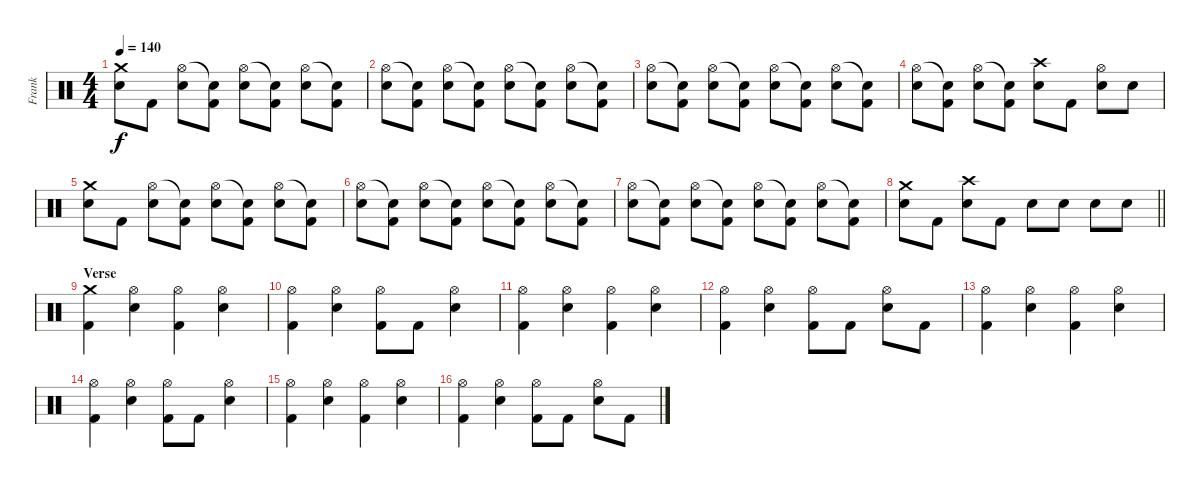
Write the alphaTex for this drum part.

\track ("Frank" "Frank") {instrument percussion}
\staff {score}
\articulation defaults
\ts (4 4)
\tempo 140
\clef neutral
\ks c
("Crash medium (hit)" "Snare (hit) 2").8{dy f volume 15} "Kick (hit) 2".8 ("Hi-Hat (open)" "Snare (hit) 2").8 ("Snare (hit)"{t} "Kick (hit) 2").8 ("Hi-Hat (open)" "Snare (hit) 2").8 ("Snare (hit)"{t} "Kick (hit) 2").8 ("Hi-Hat (open)" "Snare (hit) 2").8 ("Snare (hit)"{t} "Kick (hit) 2").8 |
("Hi-Hat (open)" "Snare (hit) 2").8 ("Snare (hit)"{t} "Kick (hit) 2").8 ("Hi-Hat (open)" "Snare (hit) 2").8 ("Snare (hit)"{t} "Kick (hit) 2").8 ("Hi-Hat (open)" "Snare (hit) 2").8 ("Snare (hit)"{t} "Kick (hit) 2").8 ("Hi-Hat (open)" "Snare (hit) 2").8 ("Snare (hit)"{t} "Kick (hit) 2").8 |
("Hi-Hat (open)" "Snare (hit) 2").8 ("Snare (hit)"{t} "Kick (hit) 2").8 ("Hi-Hat (open)" "Snare (hit) 2").8 ("Snare (hit)"{t} "Kick (hit) 2").8 ("Hi-Hat (open)" "Snare (hit) 2").8 ("Snare (hit)"{t} "Kick (hit) 2").8 ("Hi-Hat (open)" "Snare (hit) 2").8 ("Snare (hit)"{t} "Kick (hit) 2").8 |
("Hi-Hat (open)" "Snare (hit) 2").8 ("Snare (hit)"{t} "Kick (hit) 2").8 ("Hi-Hat (open)" "Snare (hit) 2").8 ("Snare (hit)"{t} "Kick (hit) 2").8 ("Crash high (hit)" "Snare (hit) 2").8 "Kick (hit) 2".8 ("Hi-Hat (open)" "Snare (hit) 2").8 "Snare (hit) 2".8 |
("Crash medium (hit)" "Snare (hit) 2").8 "Kick (hit) 2".8 ("Hi-Hat (open)" "Snare (hit) 2").8 ("Snare (hit)"{t} "Kick (hit) 2").8 ("Hi-Hat (open)" "Snare (hit) 2").8 ("Snare (hit)"{t} "Kick (hit) 2").8 ("Hi-Hat (open)" "Snare (hit) 2").8 ("Snare (hit)"{t} "Kick (hit) 2").8 |
("Hi-Hat (open)" "Snare (hit) 2").8 ("Snare (hit)"{t} "Kick (hit) 2").8 ("Hi-Hat (open)" "Snare (hit) 2").8 ("Snare (hit)"{t} "Kick (hit) 2").8 ("Hi-Hat (open)" "Snare (hit) 2").8 ("Snare (hit)"{t} "Kick (hit) 2").8 ("Hi-Hat (open)" "Snare (hit) 2").8 ("Snare (hit)"{t} "Kick (hit) 2").8 |
("Hi-Hat (open)" "Snare (hit) 2").8 ("Snare (hit)"{t} "Kick (hit) 2").8 ("Hi-Hat (open)" "Snare (hit) 2").8 ("Snare (hit)"{t} "Kick (hit) 2").8 ("Hi-Hat (open)" "Snare (hit) 2").8 ("Snare (hit)"{t} "Kick (hit) 2").8 ("Hi-Hat (open)" "Snare (hit) 2").8 ("Snare (hit)"{t} "Kick (hit) 2").8 |
\barLineRight lightlight
("Crash medium (hit)" "Snare (hit) 2").8 "Kick (hit) 2".8 ("Crash high (hit)" "Snare (hit) 2").8 "Kick (hit) 2".8 "Snare (hit) 2".8 "Snare (hit) 2".8 "Snare (hit) 2".8 "Snare (hit) 2".8 |
\section ("" "Verse")
("Crash medium (hit)" "Kick (hit) 2").4 ("Hi-Hat (open)" "Snare (hit) 2").4 ("Hi-Hat (open)" "Kick (hit) 2").4 ("Hi-Hat (open)" "Snare (hit) 2").4 |
("Hi-Hat (open)" "Kick (hit) 2").4 ("Hi-Hat (open)" "Snare (hit) 2").4 ("Hi-Hat (open)" "Kick (hit) 2").8 "Kick (hit) 2".8 ("Hi-Hat (open)" "Snare (hit) 2").4 |
("Hi-Hat (open)" "Kick (hit) 2").4 ("Hi-Hat (open)" "Snare (hit) 2").4 ("Hi-Hat (open)" "Kick (hit) 2").4 ("Hi-Hat (open)" "Snare (hit) 2").4 |
("Hi-Hat (open)" "Kick (hit) 2").4 ("Hi-Hat (open)" "Snare (hit) 2").4 ("Hi-Hat (open)" "Kick (hit) 2").8 "Kick (hit) 2".8 ("Hi-Hat (open)" "Snare (hit) 2").8 "Kick (hit) 2".8 |
("Hi-Hat (open)" "Kick (hit) 2").4 ("Hi-Hat (open)" "Snare (hit) 2").4 ("Hi-Hat (open)" "Kick (hit) 2").4 ("Hi-Hat (open)" "Snare (hit) 2").4 |
("Hi-Hat (open)" "Kick (hit) 2").4 ("Hi-Hat (open)" "Snare (hit) 2").4 ("Hi-Hat (open)" "Kick (hit) 2").8 "Kick (hit) 2".8 ("Hi-Hat (open)" "Snare (hit) 2").4 |
("Hi-Hat (open)" "Kick (hit) 2").4 ("Hi-Hat (open)" "Snare (hit) 2").4 ("Hi-Hat (open)" "Kick (hit) 2").4 ("Hi-Hat (open)" "Snare (hit) 2").4 |
("Hi-Hat (open)" "Kick (hit) 2").4 ("Hi-Hat (open)" "Snare (hit) 2").4 ("Hi-Hat (open)" "Kick (hit) 2").8 "Kick (hit) 2".8 ("Hi-Hat (open)" "Snare (hit) 2").8 "Kick (hit) 2".8
